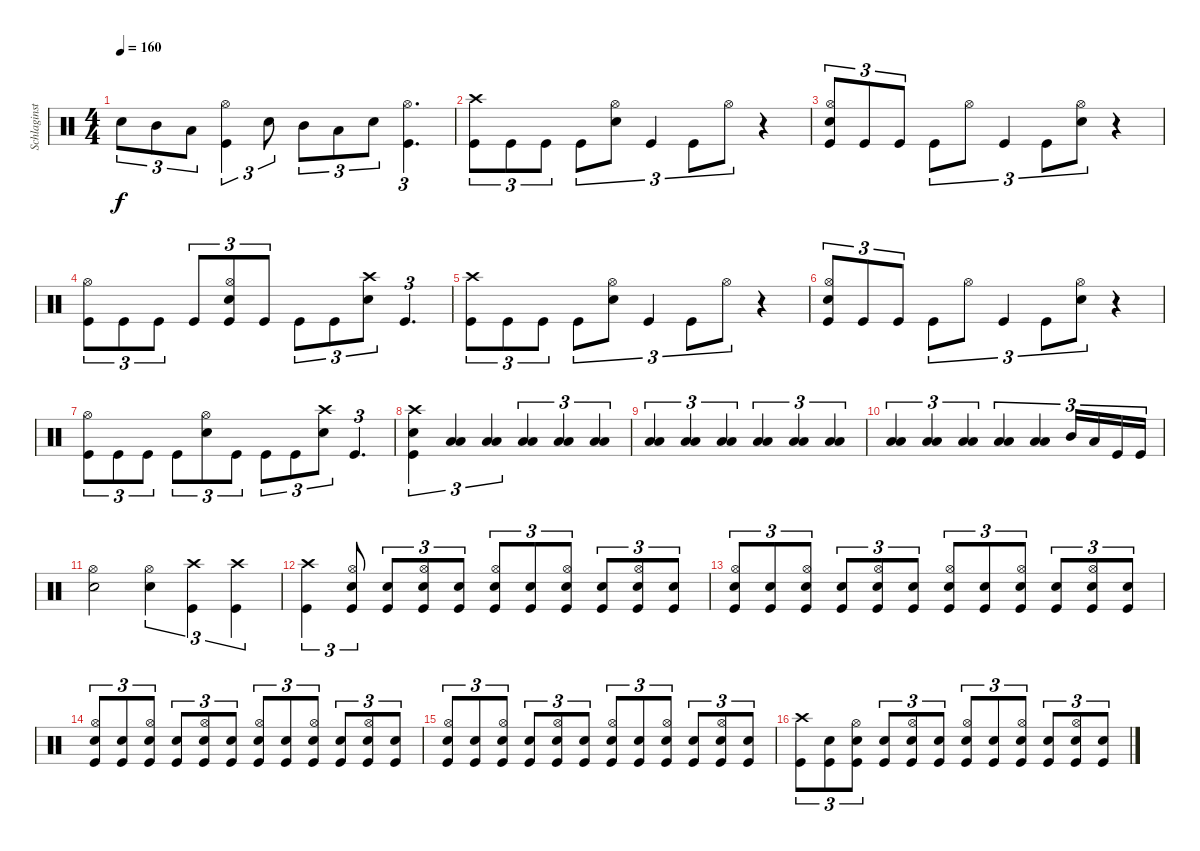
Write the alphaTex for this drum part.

\track ("Schlaginstrumente - Auswahl" "Schlaginst") {instrument percussion}
\staff {score}
\articulation defaults
\ts (4 4)
\tempo 160
\clef neutral
\ks c "Electric Snare (hit)".8{tu (3 2) dy f} "Mid Tom (hit)".8{tu (3 2)} "Low Tom (hit)".8{tu (3 2)}
("Hi-Hat (open)" "Kick (hit)").4{tu (3 2)} "Electric Snare (hit)".8{tu (3 2)} "Mid Tom (hit)".8{tu (3 2)} "Low Tom (hit)".8{tu (3 2)} "Electric Snare (hit)".8{tu (3 2)} ("Hi-Hat (open)" "Kick (hit)").4{d tu (3 2)} |
("Crash high (hit)" "Kick (hit)").8{tu (3 2)} "Kick (hit)".8{tu (3 2)} "Kick (hit)".8{tu (3 2)} "Kick (hit)".8{tu (3 2)} ("Electric Snare (hit)" "Hi-Hat (open)").8{tu (3 2)} "Kick (hit)".4{tu (3 2)} "Kick (hit)".8{tu (3 2)} "Hi-Hat (open)".8{tu (3 2)} r.4 |
("Electric Snare (hit)" "Hi-Hat (open)" "Kick (hit)").8{tu (3 2)} "Kick (hit)".8{tu (3 2)} "Kick (hit)".8{tu (3 2)} "Kick (hit)".8{tu (3 2)} "Hi-Hat (open)".8{tu (3 2)} "Kick (hit)".4{tu (3 2)} "Kick (hit)".8{tu (3 2)} ("Electric Snare (hit)" "Hi-Hat (open)").8{tu (3 2)} r.4 |
("Hi-Hat (open)" "Kick (hit)").8{tu (3 2)} "Kick (hit)".8{tu (3 2)} "Kick (hit)".8{tu (3 2)} "Kick (hit)".8{tu (3 2)} ("Kick (hit)" "Hi-Hat (open)" "Electric Snare (hit)").8{tu (3 2)} "Kick (hit)".8{tu (3 2)} "Kick (hit)".8{tu (3 2)} "Kick (hit)".8{tu (3 2)} ("Crash high (hit)" "Electric Snare (hit)").8{tu (3 2)} "Kick (hit)".4{d tu (3 2)} |
("Crash high (hit)" "Kick (hit)").8{tu (3 2)} "Kick (hit)".8{tu (3 2)} "Kick (hit)".8{tu (3 2)} "Kick (hit)".8{tu (3 2)} ("Electric Snare (hit)" "Hi-Hat (open)").8{tu (3 2)} "Kick (hit)".4{tu (3 2)} "Kick (hit)".8{tu (3 2)} "Hi-Hat (open)".8{tu (3 2)} r.4 |
("Electric Snare (hit)" "Hi-Hat (open)" "Kick (hit)").8{tu (3 2)} "Kick (hit)".8{tu (3 2)} "Kick (hit)".8{tu (3 2)} "Kick (hit)".8{tu (3 2)} "Hi-Hat (open)".8{tu (3 2)} "Kick (hit)".4{tu (3 2)} "Kick (hit)".8{tu (3 2)} ("Electric Snare (hit)" "Hi-Hat (open)").8{tu (3 2)} r.4 |
("Hi-Hat (open)" "Kick (hit)").8{tu (3 2)} "Kick (hit)".8{tu (3 2)} "Kick (hit)".8{tu (3 2)} "Kick (hit)".8{tu (3 2)} ("Hi-Hat (open)" "Electric Snare (hit)").8{tu (3 2)} "Kick (hit)".8{tu (3 2)} "Kick (hit)".8{tu (3 2)} "Kick (hit)".8{tu (3 2)} ("Crash high (hit)" "Electric Snare (hit)").8{tu (3 2)} "Kick (hit)".4{d tu (3 2)} |
("Kick (hit)" "Crash high (hit)" "Electric Snare (hit)").4{tu (3 2)} ("Low Tom (hit)" "Low Floor Tom (hit)").4{tu (3 2)} ("Low Tom (hit)" "Low Floor Tom (hit)").4{tu (3 2)} ("Low Tom (hit)" "Low Floor Tom (hit)").4{tu (3 2)} ("Low Tom (hit)" "Low Floor Tom (hit)").4{tu (3 2)} ("Low Tom (hit)" "Low Floor Tom (hit)").4{tu (3 2)} |
("Low Tom (hit)" "Low Floor Tom (hit)").4{tu (3 2)} ("Low Tom (hit)" "Low Floor Tom (hit)").4{tu (3 2)} ("Low Tom (hit)" "Low Floor Tom (hit)").4{tu (3 2)} ("Low Tom (hit)" "Low Floor Tom (hit)").4{tu (3 2)} ("Low Tom (hit)" "Low Floor Tom (hit)").4{tu (3 2)} ("Low Tom (hit)" "Low Floor Tom (hit)").4{tu (3 2)} |
("Low Tom (hit)" "Low Floor Tom (hit)").4{tu (3 2)} ("Low Tom (hit)" "Low Floor Tom (hit)").4{tu (3 2)} ("Low Tom (hit)" "Low Floor Tom (hit)").4{tu (3 2)} ("Low Tom (hit)" "Low Floor Tom (hit)").4{tu (3 2)} ("Low Tom (hit)" "Low Floor Tom (hit)").4{tu (3 2)} "Mid Tom (hit)".16{tu (3 2)} "Low Tom (hit)".16{tu (3 2)} "Kick (hit)".16{tu (3 2)} "Kick (hit)".16{tu (3 2)} |
("Hi-Hat (open)" "Electric Snare (hit)").2 ("Hi-Hat (open)" "Electric Snare (hit)").4{tu (3 2)} ("Crash high (hit)" "Kick (hit)").4{tu (3 2)} ("Crash high (hit)" "Kick (hit)").4{tu (3 2)} |
("Crash high (hit)" "Kick (hit)").4{tu (3 2)} ("Kick (hit)" "Hi-Hat (open)" "Electric Snare (hit)").8{tu (3 2)} ("Electric Snare (hit)" "Kick (hit)").8{tu (3 2)} ("Hi-Hat (open)" "Electric Snare (hit)" "Kick (hit)").8{tu (3 2)} ("Electric Snare (hit)" "Kick (hit)").8{tu (3 2)} ("Hi-Hat (open)" "Electric Snare (hit)" "Kick (hit)").8{tu (3 2)} ("Electric Snare (hit)" "Kick (hit)").8{tu (3 2)} ("Hi-Hat (open)" "Electric Snare (hit)" "Kick (hit)").8{tu (3 2)} ("Electric Snare (hit)" "Kick (hit)").8{tu (3 2)} ("Hi-Hat (open)" "Electric Snare (hit)" "Kick (hit)").8{tu (3 2)} ("Electric Snare (hit)" "Kick (hit)").8{tu (3 2)} |
("Hi-Hat (open)" "Electric Snare (hit)" "Kick (hit)").8{tu (3 2)} ("Electric Snare (hit)" "Kick (hit)").8{tu (3 2)} ("Hi-Hat (open)" "Electric Snare (hit)" "Kick (hit)").8{tu (3 2)} ("Electric Snare (hit)" "Kick (hit)").8{tu (3 2)} ("Hi-Hat (open)" "Electric Snare (hit)" "Kick (hit)").8{tu (3 2)} ("Electric Snare (hit)" "Kick (hit)").8{tu (3 2)} ("Hi-Hat (open)" "Electric Snare (hit)" "Kick (hit)").8{tu (3 2)} ("Electric Snare (hit)" "Kick (hit)").8{tu (3 2)} ("Hi-Hat (open)" "Electric Snare (hit)" "Kick (hit)").8{tu (3 2)} ("Electric Snare (hit)" "Kick (hit)").8{tu (3 2)} ("Hi-Hat (open)" "Electric Snare (hit)" "Kick (hit)").8{tu (3 2)} ("Electric Snare (hit)" "Kick (hit)").8{tu (3 2)} |
("Hi-Hat (open)" "Electric Snare (hit)" "Kick (hit)").8{tu (3 2)} ("Electric Snare (hit)" "Kick (hit)").8{tu (3 2)} ("Hi-Hat (open)" "Electric Snare (hit)" "Kick (hit)").8{tu (3 2)} ("Electric Snare (hit)" "Kick (hit)").8{tu (3 2)} ("Hi-Hat (open)" "Electric Snare (hit)" "Kick (hit)").8{tu (3 2)} ("Electric Snare (hit)" "Kick (hit)").8{tu (3 2)} ("Hi-Hat (open)" "Electric Snare (hit)" "Kick (hit)").8{tu (3 2)} ("Electric Snare (hit)" "Kick (hit)").8{tu (3 2)} ("Hi-Hat (open)" "Electric Snare (hit)" "Kick (hit)").8{tu (3 2)} ("Electric Snare (hit)" "Kick (hit)").8{tu (3 2)} ("Hi-Hat (open)" "Electric Snare (hit)" "Kick (hit)").8{tu (3 2)} ("Electric Snare (hit)" "Kick (hit)").8{tu (3 2)} |
("Hi-Hat (open)" "Electric Snare (hit)" "Kick (hit)").8{tu (3 2)} ("Electric Snare (hit)" "Kick (hit)").8{tu (3 2)} ("Hi-Hat (open)" "Electric Snare (hit)" "Kick (hit)").8{tu (3 2)} ("Electric Snare (hit)" "Kick (hit)").8{tu (3 2)} ("Hi-Hat (open)" "Electric Snare (hit)" "Kick (hit)").8{tu (3 2)} ("Electric Snare (hit)" "Kick (hit)").8{tu (3 2)} ("Hi-Hat (open)" "Electric Snare (hit)" "Kick (hit)").8{tu (3 2)} ("Electric Snare (hit)" "Kick (hit)").8{tu (3 2)} ("Hi-Hat (open)" "Electric Snare (hit)" "Kick (hit)").8{tu (3 2)} ("Electric Snare (hit)" "Kick (hit)").8{tu (3 2)} ("Hi-Hat (open)" "Electric Snare (hit)" "Kick (hit)").8{tu (3 2)} ("Electric Snare (hit)" "Kick (hit)").8{tu (3 2)} |
("Crash high (hit)" "Kick (hit)").8{tu (3 2)} ("Electric Snare (hit)" "Kick (hit)").8{tu (3 2)} ("Hi-Hat (open)" "Electric Snare (hit)" "Kick (hit)").8{tu (3 2)} ("Electric Snare (hit)" "Kick (hit)").8{tu (3 2)} ("Hi-Hat (open)" "Electric Snare (hit)" "Kick (hit)").8{tu (3 2)} ("Electric Snare (hit)" "Kick (hit)").8{tu (3 2)} ("Hi-Hat (open)" "Electric Snare (hit)" "Kick (hit)").8{tu (3 2)} ("Electric Snare (hit)" "Kick (hit)").8{tu (3 2)} ("Hi-Hat (open)" "Electric Snare (hit)" "Kick (hit)").8{tu (3 2)} ("Electric Snare (hit)" "Kick (hit)").8{tu (3 2)} ("Hi-Hat (open)" "Electric Snare (hit)" "Kick (hit)").8{tu (3 2)} ("Electric Snare (hit)" "Kick (hit)").8{tu (3 2)}
